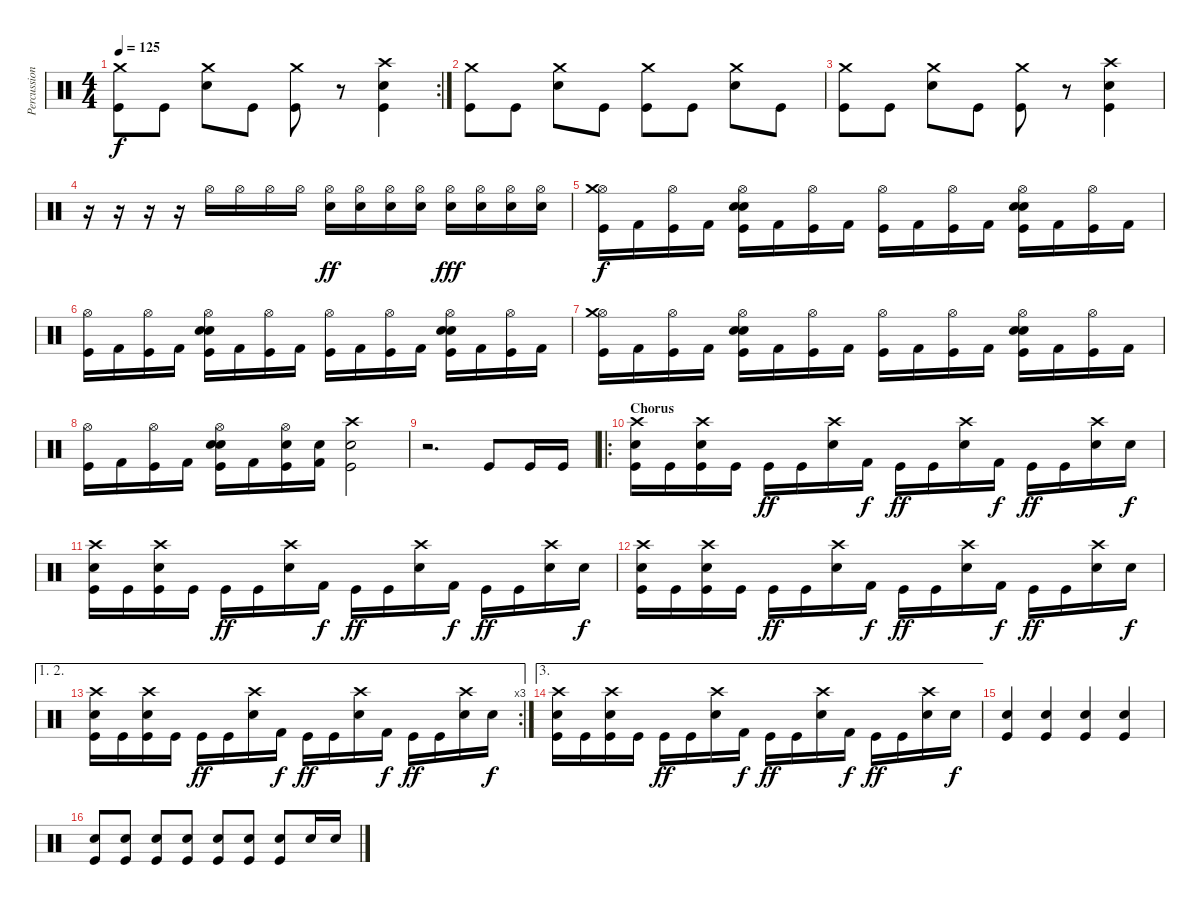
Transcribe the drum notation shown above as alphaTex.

\track ("Percussion" "Percussion") {instrument percussion}
\staff {score}
\articulation defaults
\rc 2
\ts (4 4)
\tempo 125
\clef neutral
\ks c
("Crash medium (hit)" "Kick (hit)").8{dy f} "Kick (hit)".8 ("Crash medium (hit)" "Snare (hit) 2").8 "Kick (hit)".8 ("Crash medium (hit)" "Kick (hit)").8 r.8 ("Crash high (hit)" "Snare (hit) 2" "Kick (hit)").4 |
("Crash medium (hit)" "Kick (hit)").8 "Kick (hit)".8 ("Crash medium (hit)" "Snare (hit) 2").8 "Kick (hit)".8 ("Crash medium (hit)" "Kick (hit)").8 "Kick (hit)".8 ("Crash medium (hit)" "Snare (hit) 2").8 "Kick (hit)".8 |
("Crash medium (hit)" "Kick (hit)").8 "Kick (hit)".8 ("Crash medium (hit)" "Snare (hit) 2").8 "Kick (hit)".8 ("Crash medium (hit)" "Kick (hit)").8 r.8 ("Crash high (hit)" "Snare (hit) 2" "Kick (hit)").4 |
r.16 r.16 r.16 r.16 "Hi-Hat (open)".16 "Hi-Hat (open)".16 "Hi-Hat (open)".16 "Hi-Hat (open)".16 ("Hi-Hat (open)" "Snare (hit) 2").16{dy ff} ("Hi-Hat (open)" "Snare (hit) 2").16 ("Hi-Hat (open)" "Snare (hit) 2").16 ("Hi-Hat (open)" "Snare (hit) 2").16 ("Hi-Hat (open)" "Snare (hit) 2").16{dy fff} ("Hi-Hat (open)" "Snare (hit) 2").16 ("Hi-Hat (open)" "Snare (hit) 2").16 ("Hi-Hat (open)" "Snare (hit) 2").16 |
("Hi-Hat (open)" "Crash medium (hit)" "Kick (hit)").16{dy f} "Kick (hit) 2".16 ("Hi-Hat (open)" "Kick (hit)").16 "Kick (hit) 2".16 ("Hi-Hat (open)" "Snare (hit) 2" "Electric Snare (hit)" "Kick (hit)").16 "Kick (hit) 2".16 ("Hi-Hat (open)" "Kick (hit)").16 "Kick (hit) 2".16 ("Hi-Hat (open)" "Kick (hit)").16 "Kick (hit) 2".16 ("Hi-Hat (open)" "Kick (hit)").16 "Kick (hit) 2".16 ("Hi-Hat (open)" "Snare (hit) 2" "Electric Snare (hit)" "Kick (hit)").16 "Kick (hit) 2".16 ("Hi-Hat (open)" "Kick (hit)").16 "Kick (hit) 2".16 |
("Hi-Hat (open)" "Kick (hit)").16 "Kick (hit) 2".16 ("Hi-Hat (open)" "Kick (hit)").16 "Kick (hit) 2".16 ("Hi-Hat (open)" "Snare (hit) 2" "Electric Snare (hit)" "Kick (hit)").16 "Kick (hit) 2".16 ("Hi-Hat (open)" "Kick (hit)").16 "Kick (hit) 2".16 ("Hi-Hat (open)" "Kick (hit)").16 "Kick (hit) 2".16 ("Hi-Hat (open)" "Kick (hit)").16 "Kick (hit) 2".16 ("Hi-Hat (open)" "Snare (hit) 2" "Electric Snare (hit)" "Kick (hit)").16 "Kick (hit) 2".16 ("Hi-Hat (open)" "Kick (hit)").16 "Kick (hit) 2".16 |
("Hi-Hat (open)" "Crash medium (hit)" "Kick (hit)").16 "Kick (hit) 2".16 ("Hi-Hat (open)" "Kick (hit)").16 "Kick (hit) 2".16 ("Hi-Hat (open)" "Snare (hit) 2" "Electric Snare (hit)" "Kick (hit)").16 "Kick (hit) 2".16 ("Hi-Hat (open)" "Kick (hit)").16 "Kick (hit) 2".16 ("Hi-Hat (open)" "Kick (hit)").16 "Kick (hit) 2".16 ("Hi-Hat (open)" "Kick (hit)").16 "Kick (hit) 2".16 ("Hi-Hat (open)" "Snare (hit) 2" "Electric Snare (hit)" "Kick (hit)").16 "Kick (hit) 2".16 ("Hi-Hat (open)" "Kick (hit)").16 "Kick (hit) 2".16 |
("Hi-Hat (open)" "Kick (hit)").16 "Kick (hit) 2".16 ("Hi-Hat (open)" "Kick (hit)").16 "Kick (hit) 2".16 ("Hi-Hat (open)" "Snare (hit) 2" "Electric Snare (hit)" "Kick (hit)").16 "Kick (hit) 2".16 ("Hi-Hat (open)" "Snare (hit) 2" "Kick (hit)").16 ("Snare (hit) 2" "Kick (hit) 2").16 ("Crash high (hit)" "Snare (hit) 2" "Kick (hit)").2 |
r.2{d} "Kick (hit)".8 "Kick (hit)".16 "Kick (hit)".16 |
\ro
\section ("" "Chorus")
("Crash high (hit)" "Snare (hit) 2" "Kick (hit)").16 "Kick (hit)".16 ("Crash high (hit)" "Snare (hit) 2" "Kick (hit)").16 "Kick (hit)".16 "Kick (hit)".16{dy ff} "Kick (hit)".16 ("Crash high (hit)" "Snare (hit) 2").16 "Kick (hit) 2".16{dy f} "Kick (hit)".16{dy ff} "Kick (hit)".16 ("Crash high (hit)" "Snare (hit) 2").16 "Kick (hit) 2".16{dy f} "Kick (hit)".16{dy ff} "Kick (hit)".16 ("Crash high (hit)" "Snare (hit) 2").16 "Snare (hit) 2".16{dy f} |
("Crash high (hit)" "Snare (hit) 2" "Kick (hit)").16 "Kick (hit)".16 ("Crash high (hit)" "Snare (hit) 2" "Kick (hit)").16 "Kick (hit)".16 "Kick (hit)".16{dy ff} "Kick (hit)".16 ("Crash high (hit)" "Snare (hit) 2").16 "Kick (hit) 2".16{dy f} "Kick (hit)".16{dy ff} "Kick (hit)".16 ("Crash high (hit)" "Snare (hit) 2").16 "Kick (hit) 2".16{dy f} "Kick (hit)".16{dy ff} "Kick (hit)".16 ("Crash high (hit)" "Snare (hit) 2").16 "Snare (hit) 2".16{dy f} |
("Crash high (hit)" "Snare (hit) 2" "Kick (hit)").16 "Kick (hit)".16 ("Crash high (hit)" "Snare (hit) 2" "Kick (hit)").16 "Kick (hit)".16 "Kick (hit)".16{dy ff} "Kick (hit)".16 ("Crash high (hit)" "Snare (hit) 2").16 "Kick (hit) 2".16{dy f} "Kick (hit)".16{dy ff} "Kick (hit)".16 ("Crash high (hit)" "Snare (hit) 2").16 "Kick (hit) 2".16{dy f} "Kick (hit)".16{dy ff} "Kick (hit)".16 ("Crash high (hit)" "Snare (hit) 2").16 "Snare (hit) 2".16{dy f} |
\ae (1 2)
\rc 3
("Crash high (hit)" "Snare (hit) 2" "Kick (hit)").16 "Kick (hit)".16 ("Crash high (hit)" "Snare (hit) 2" "Kick (hit)").16 "Kick (hit)".16 "Kick (hit)".16{dy ff} "Kick (hit)".16 ("Crash high (hit)" "Snare (hit) 2").16 "Kick (hit) 2".16{dy f} "Kick (hit)".16{dy ff} "Kick (hit)".16 ("Crash high (hit)" "Snare (hit) 2").16 "Kick (hit) 2".16{dy f} "Kick (hit)".16{dy ff} "Kick (hit)".16 ("Crash high (hit)" "Snare (hit) 2").16 "Snare (hit) 2".16{dy f} |
\ae 3
("Crash high (hit)" "Snare (hit) 2" "Kick (hit)").16 "Kick (hit)".16 ("Crash high (hit)" "Snare (hit) 2" "Kick (hit)").16 "Kick (hit)".16 "Kick (hit)".16{dy ff} "Kick (hit)".16 ("Crash high (hit)" "Snare (hit) 2").16 "Kick (hit) 2".16{dy f} "Kick (hit)".16{dy ff} "Kick (hit)".16 ("Crash high (hit)" "Snare (hit) 2").16 "Kick (hit) 2".16{dy f} "Kick (hit)".16{dy ff} "Kick (hit)".16 ("Crash high (hit)" "Snare (hit) 2").16 "Snare (hit) 2".16{dy f} |
("Snare (hit) 2" "Kick (hit)").4 ("Snare (hit) 2" "Kick (hit)").4 ("Snare (hit) 2" "Kick (hit)").4 ("Snare (hit) 2" "Kick (hit)").4 |
("Snare (hit) 2" "Kick (hit)").8 ("Snare (hit) 2" "Kick (hit)").8 ("Snare (hit) 2" "Kick (hit)").8 ("Snare (hit) 2" "Kick (hit)").8 ("Snare (hit) 2" "Kick (hit)").8 ("Snare (hit) 2" "Kick (hit)").8 ("Snare (hit) 2" "Kick (hit)").8 "Snare (hit) 2".16 "Snare (hit) 2".16
